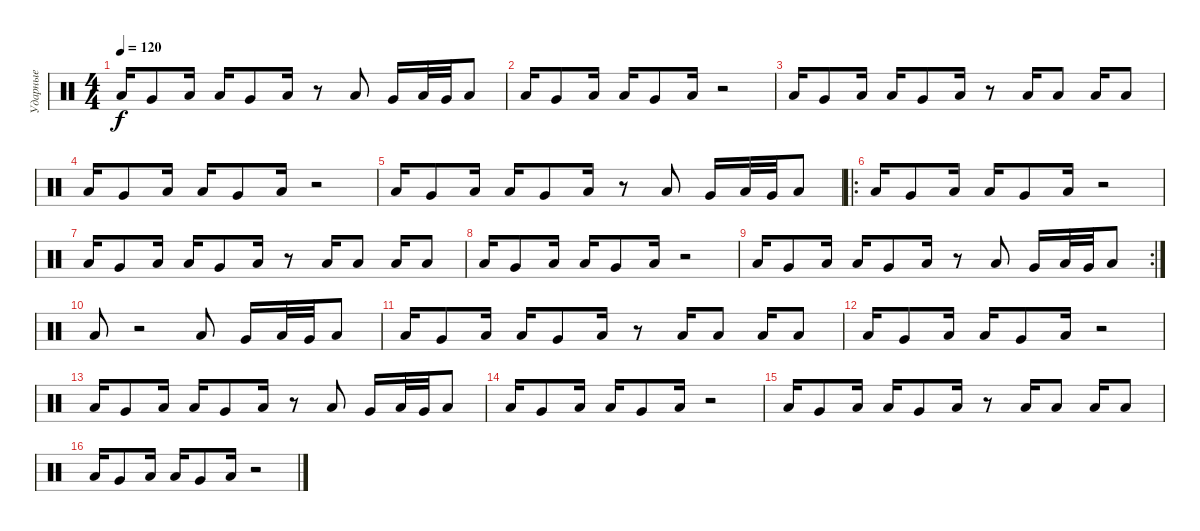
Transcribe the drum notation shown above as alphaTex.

\track ("Ударные" "Ударные") {instrument percussion}
\staff {score}
\articulation defaults
\ts (4 4)
\tempo 120
\clef neutral
\ks c "Low Floor Tom (hit)".16{dy f} "Very Low Tom (hit)".8 "Low Tom (hit)".16 "Low Floor Tom (hit)".16 "Very Low Tom (hit)".8 "Low Tom (hit)".16
r.8 "Low Tom (hit)".8 "Very Low Tom (hit)".16 "Low Tom (hit)".32 "Very Low Tom (hit)".32 "Low Tom (hit)".8 |
"Low Floor Tom (hit)".16 "Very Low Tom (hit)".8 "Low Tom (hit)".16 "Low Floor Tom (hit)".16 "Very Low Tom (hit)".8 "Low Tom (hit)".16 r.2 |
"Low Floor Tom (hit)".16 "Very Low Tom (hit)".8 "Low Tom (hit)".16 "Low Floor Tom (hit)".16 "Very Low Tom (hit)".8 "Low Tom (hit)".16 r.8 "Low Tom (hit)".16 "Low Tom (hit)".8 "Low Tom (hit)".16 "Low Tom (hit)".8 |
"Low Floor Tom (hit)".16 "Very Low Tom (hit)".8 "Low Tom (hit)".16 "Low Floor Tom (hit)".16 "Very Low Tom (hit)".8 "Low Tom (hit)".16 r.2 |
"Low Floor Tom (hit)".16 "Very Low Tom (hit)".8 "Low Tom (hit)".16 "Low Floor Tom (hit)".16 "Very Low Tom (hit)".8 "Low Tom (hit)".16 r.8 "Low Tom (hit)".8 "Very Low Tom (hit)".16 "Low Tom (hit)".32 "Very Low Tom (hit)".32 "Low Tom (hit)".8 |
\ro "Low Floor Tom (hit)".16 "Very Low Tom (hit)".8 "Low Tom (hit)".16 "Low Floor Tom (hit)".16 "Very Low Tom (hit)".8 "Low Tom (hit)".16
r.2 |
"Low Floor Tom (hit)".16 "Very Low Tom (hit)".8 "Low Tom (hit)".16 "Low Floor Tom (hit)".16 "Very Low Tom (hit)".8 "Low Tom (hit)".16 r.8 "Low Tom (hit)".16 "Low Tom (hit)".8 "Low Tom (hit)".16 "Low Tom (hit)".8 |
"Low Floor Tom (hit)".16 "Very Low Tom (hit)".8 "Low Tom (hit)".16 "Low Floor Tom (hit)".16 "Very Low Tom (hit)".8 "Low Tom (hit)".16 r.2 |
\rc 2 "Low Floor Tom (hit)".16 "Very Low Tom (hit)".8 "Low Tom (hit)".16 "Low Floor Tom (hit)".16 "Very Low Tom (hit)".8 "Low Tom (hit)".16
r.8 "Low Tom (hit)".8 "Very Low Tom (hit)".16 "Low Tom (hit)".32 "Very Low Tom (hit)".32 "Low Tom (hit)".8 |
"Low Floor Tom (hit)".8 r.2 "Low Tom (hit)".8 "Very Low Tom (hit)".16 "Low Tom (hit)".32 "Very Low Tom (hit)".32 "Low Floor Tom (hit)".8 |
"Low Floor Tom (hit)".16 "Very Low Tom (hit)".8 "Low Tom (hit)".16 "Low Floor Tom (hit)".16 "Very Low Tom (hit)".8 "Low Tom (hit)".16 r.8 "Low Tom (hit)".16 "Low Tom (hit)".8 "Low Tom (hit)".16 "Low Tom (hit)".8 |
"Low Floor Tom (hit)".16 "Very Low Tom (hit)".8 "Low Tom (hit)".16 "Low Floor Tom (hit)".16 "Very Low Tom (hit)".8 "Low Tom (hit)".16 r.2 |
"Low Floor Tom (hit)".16 "Very Low Tom (hit)".8 "Low Tom (hit)".16 "Low Floor Tom (hit)".16 "Very Low Tom (hit)".8 "Low Tom (hit)".16 r.8 "Low Tom (hit)".8 "Very Low Tom (hit)".16 "Low Tom (hit)".32 "Very Low Tom (hit)".32 "Low Tom (hit)".8 |
"Low Floor Tom (hit)".16 "Very Low Tom (hit)".8 "Low Tom (hit)".16 "Low Floor Tom (hit)".16 "Very Low Tom (hit)".8 "Low Tom (hit)".16 r.2 |
"Low Floor Tom (hit)".16 "Very Low Tom (hit)".8 "Low Tom (hit)".16 "Low Floor Tom (hit)".16 "Very Low Tom (hit)".8 "Low Tom (hit)".16 r.8 "Low Tom (hit)".16 "Low Tom (hit)".8 "Low Tom (hit)".16 "Low Tom (hit)".8 |
"Low Floor Tom (hit)".16 "Very Low Tom (hit)".8 "Low Tom (hit)".16 "Low Floor Tom (hit)".16 "Very Low Tom (hit)".8 "Low Tom (hit)".16 r.2
